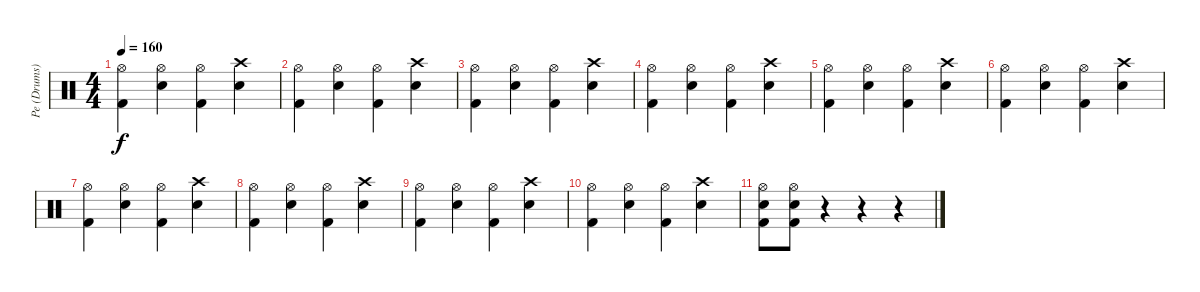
\track ("Pe (Drums)" "Pe (Drums)") {instrument percussion}
\staff {score}
\articulation defaults
\ts (4 4)
\tempo 160
\clef neutral
\ks c
("Hi-Hat (open)" "Kick (hit) 2").4{dy f} ("Hi-Hat (open)" "Snare (hit) 2").4 ("Hi-Hat (open)" "Kick (hit) 2").4 ("Crash high (hit)" "Snare (hit) 2").4 |
("Hi-Hat (open)" "Kick (hit) 2").4 ("Hi-Hat (open)" "Snare (hit) 2").4 ("Hi-Hat (open)" "Kick (hit) 2").4 ("Crash high (hit)" "Snare (hit) 2").4 |
("Hi-Hat (open)" "Kick (hit) 2").4 ("Hi-Hat (open)" "Snare (hit) 2").4 ("Hi-Hat (open)" "Kick (hit) 2").4 ("Crash high (hit)" "Snare (hit) 2").4 |
("Hi-Hat (open)" "Kick (hit) 2").4 ("Hi-Hat (open)" "Snare (hit) 2").4 ("Hi-Hat (open)" "Kick (hit) 2").4 ("Crash high (hit)" "Snare (hit) 2").4 |
("Hi-Hat (open)" "Kick (hit) 2").4 ("Hi-Hat (open)" "Snare (hit) 2").4 ("Hi-Hat (open)" "Kick (hit) 2").4 ("Crash high (hit)" "Snare (hit) 2").4 |
("Hi-Hat (open)" "Kick (hit) 2").4 ("Hi-Hat (open)" "Snare (hit) 2").4 ("Hi-Hat (open)" "Kick (hit) 2").4 ("Crash high (hit)" "Snare (hit) 2").4 |
("Hi-Hat (open)" "Kick (hit) 2").4 ("Hi-Hat (open)" "Snare (hit) 2").4 ("Hi-Hat (open)" "Kick (hit) 2").4 ("Crash high (hit)" "Snare (hit) 2").4 |
("Hi-Hat (open)" "Kick (hit) 2").4 ("Hi-Hat (open)" "Snare (hit) 2").4 ("Hi-Hat (open)" "Kick (hit) 2").4 ("Crash high (hit)" "Snare (hit) 2").4 |
("Hi-Hat (open)" "Kick (hit) 2").4 ("Hi-Hat (open)" "Snare (hit) 2").4 ("Hi-Hat (open)" "Kick (hit) 2").4 ("Crash high (hit)" "Snare (hit) 2").4 |
("Hi-Hat (open)" "Kick (hit) 2").4 ("Hi-Hat (open)" "Snare (hit) 2").4 ("Hi-Hat (open)" "Kick (hit) 2").4 ("Crash high (hit)" "Snare (hit) 2").4 |
("Hi-Hat (open)" "Snare (hit) 2" "Kick (hit) 2").8 ("Hi-Hat (open)" "Snare (hit) 2" "Kick (hit) 2").8 r.4 r.4 r.4
